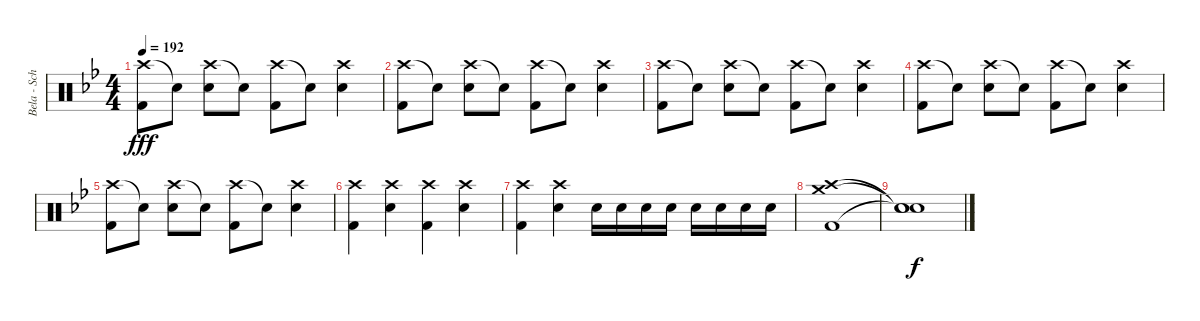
\track ("Bela - Schlagzeug" "Bela - Sch") {instrument percussion}
\staff {score}
\articulation defaults
\ts (4 4)
\tempo 192
\clef neutral
\ks bb
("Crash high (hit)" "Kick (hit) 2").8{dy fff} "Snare (hit)"{t}.8 ("Crash high (hit)" "Snare (hit) 2").8 "Snare (hit)"{t}.8 ("Crash high (hit)" "Kick (hit) 2").8 "Snare (hit)"{t}.8 ("Crash high (hit)" "Snare (hit) 2").4 |
("Crash high (hit)" "Kick (hit) 2").8 "Snare (hit)"{t}.8 ("Crash high (hit)" "Snare (hit) 2").8 "Snare (hit)"{t}.8 ("Crash high (hit)" "Kick (hit) 2").8 "Snare (hit)"{t}.8 ("Crash high (hit)" "Snare (hit) 2").4 |
("Crash high (hit)" "Kick (hit) 2").8 "Snare (hit)"{t}.8 ("Crash high (hit)" "Snare (hit) 2").8 "Snare (hit)"{t}.8 ("Crash high (hit)" "Kick (hit) 2").8 "Snare (hit)"{t}.8 ("Crash high (hit)" "Snare (hit) 2").4 |
("Crash high (hit)" "Kick (hit) 2").8 "Snare (hit)"{t}.8 ("Crash high (hit)" "Snare (hit) 2").8 "Snare (hit)"{t}.8 ("Crash high (hit)" "Kick (hit) 2").8 "Snare (hit)"{t}.8 ("Crash high (hit)" "Snare (hit) 2").4 |
("Crash high (hit)" "Kick (hit) 2").8 "Snare (hit)"{t}.8 ("Crash high (hit)" "Snare (hit) 2").8 "Snare (hit)"{t}.8 ("Crash high (hit)" "Kick (hit) 2").8 "Snare (hit)"{t}.8 ("Crash high (hit)" "Snare (hit) 2").4 |
("Crash high (hit)" "Kick (hit) 2").4 ("Crash high (hit)" "Snare (hit) 2").4 ("Crash high (hit)" "Kick (hit) 2").4 ("Crash high (hit)" "Snare (hit) 2").4 |
("Crash high (hit)" "Kick (hit) 2").4 ("Crash high (hit)" "Snare (hit) 2").4 "Snare (hit) 2".16 "Snare (hit) 2".16 "Snare (hit) 2".16 "Snare (hit) 2".16 "Snare (hit) 2".16 "Snare (hit) 2".16 "Snare (hit) 2".16 "Snare (hit) 2".16 |
("Crash high (hit)" "Crash medium (hit)" "Kick (hit) 2").1 |
("Snare (hit)"{t} "Snare (hit)"{t} "Snare (hit)"{t}).1{dy f}
